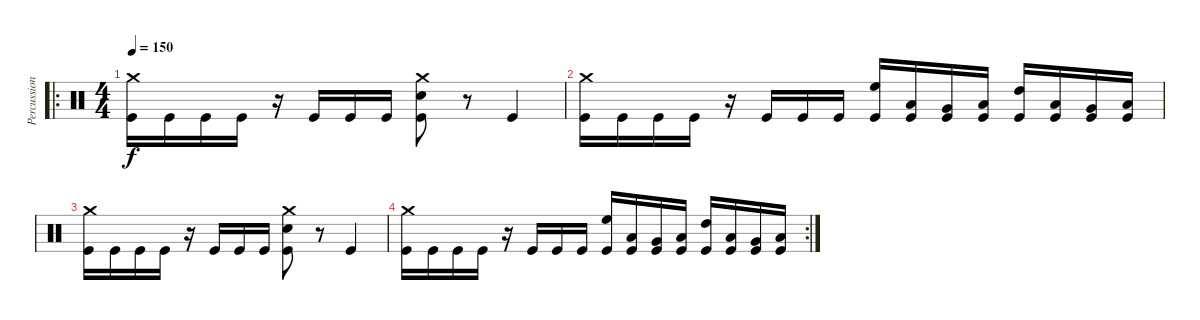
\track ("Percussion" "Percussion") {instrument percussion}
\staff {score}
\articulation defaults
\ro
\ts (4 4)
\tempo 150
\clef neutral
\ks c
("Crash medium (hit)" "Kick (hit)").16{dy f} "Kick (hit)".16 "Kick (hit)".16 "Kick (hit)".16 r.16 "Kick (hit)".16 "Kick (hit)".16 "Kick (hit)".16 ("Crash medium (hit)" "Snare (hit) 2" "Kick (hit)").8 r.8 "Kick (hit)".4 |
("Crash medium (hit)" "Kick (hit)").16 "Kick (hit)".16 "Kick (hit)".16 "Kick (hit)".16 r.16 "Kick (hit)".16 "Kick (hit)".16 "Kick (hit)".16 ("High Floor Tom (hit)" "Kick (hit)").16 ("Low Tom (hit)" "Kick (hit)").16 ("Very Low Tom (hit)" "Kick (hit)").16 ("Low Tom (hit)" "Kick (hit)").16 ("High Tom (hit)" "Kick (hit)").16 ("Low Tom (hit)" "Kick (hit)").16 ("Very Low Tom (hit)" "Kick (hit)").16 ("Low Tom (hit)" "Kick (hit)").16 |
("Crash medium (hit)" "Kick (hit)").16 "Kick (hit)".16 "Kick (hit)".16 "Kick (hit)".16 r.16 "Kick (hit)".16 "Kick (hit)".16 "Kick (hit)".16 ("Crash medium (hit)" "Snare (hit) 2" "Kick (hit)").8 r.8 "Kick (hit)".4 |
\rc 2
("Crash medium (hit)" "Kick (hit)").16 "Kick (hit)".16 "Kick (hit)".16 "Kick (hit)".16 r.16 "Kick (hit)".16 "Kick (hit)".16 "Kick (hit)".16 ("High Floor Tom (hit)" "Kick (hit)").16 ("Low Tom (hit)" "Kick (hit)").16 ("Very Low Tom (hit)" "Kick (hit)").16 ("Low Tom (hit)" "Kick (hit)").16 ("High Tom (hit)" "Kick (hit)").16 ("Low Tom (hit)" "Kick (hit)").16 ("Very Low Tom (hit)" "Kick (hit)").16 ("Low Tom (hit)" "Kick (hit)").16
